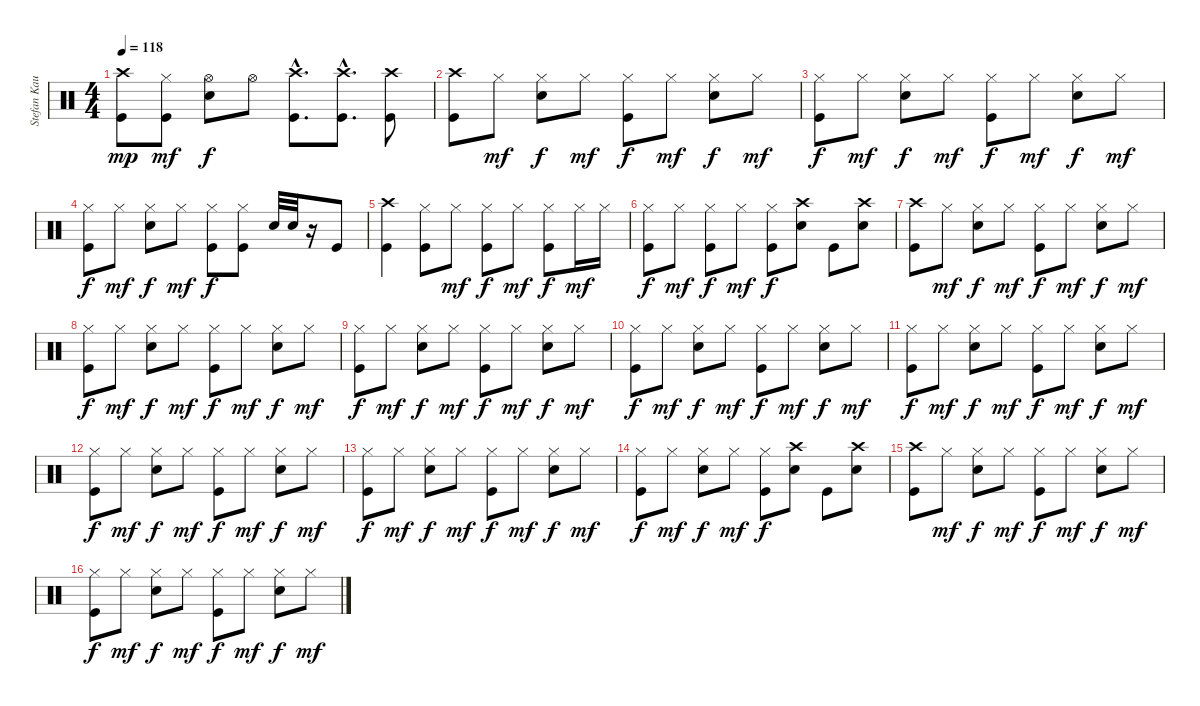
\track ("Stefan Kaufmann" "Stefan Kau") {instrument percussion}
\staff {score}
\articulation defaults
\ts (4 4)
\tempo 118
\clef neutral
\ks c
("Crash high (hit)" "Kick (hit)").8{dy mp} ("Hi-Hat (closed)" "Kick (hit)").8{dy mf} ("Hi-Hat (open)" "Snare (hit) 2").8{dy f} "Hi-Hat (open)".8 ("Crash high (hit)"{hac} "Kick (hit)"{hac}).8{d} ("Crash high (hit)"{hac} "Kick (hit)"{hac}).8{d} ("Crash high (hit)" "Kick (hit)").8 |
("Crash high (hit)" "Kick (hit)").8 "Hi-Hat (closed)".8{dy mf} ("Hi-Hat (closed)" "Snare (hit) 2").8{dy f} "Hi-Hat (closed)".8{dy mf} ("Hi-Hat (closed)" "Kick (hit)").8{dy f} "Hi-Hat (closed)".8{dy mf} ("Hi-Hat (closed)" "Snare (hit) 2").8{dy f} "Hi-Hat (closed)".8{dy mf} |
("Hi-Hat (closed)" "Kick (hit)").8{dy f} "Hi-Hat (closed)".8{dy mf} ("Hi-Hat (closed)" "Snare (hit) 2").8{dy f} "Hi-Hat (closed)".8{dy mf} ("Hi-Hat (closed)" "Kick (hit)").8{dy f} "Hi-Hat (closed)".8{dy mf} ("Hi-Hat (closed)" "Snare (hit) 2").8{dy f} "Hi-Hat (closed)".8{dy mf} |
("Hi-Hat (closed)" "Kick (hit)").8{dy f} "Hi-Hat (closed)".8{dy mf} ("Hi-Hat (closed)" "Snare (hit) 2").8{dy f} "Hi-Hat (closed)".8{dy mf} ("Hi-Hat (closed)" "Kick (hit)").8{dy f} ("Hi-Hat (closed)" "Kick (hit)").8 "Snare (hit) 2".32 "Snare (hit) 2".32 r.16 "Kick (hit)".8 |
("Crash high (hit)" "Kick (hit)").4 ("Hi-Hat (closed)" "Kick (hit)").8 "Hi-Hat (closed)".8{dy mf} ("Hi-Hat (closed)" "Kick (hit)").8{dy f} "Hi-Hat (closed)".8{dy mf} ("Hi-Hat (closed)" "Kick (hit)").8{dy f} "Hi-Hat (closed)".16{dy mf} "Hi-Hat (closed)".16 |
("Hi-Hat (closed)" "Kick (hit)").8{dy f} "Hi-Hat (closed)".8{dy mf} ("Hi-Hat (closed)" "Kick (hit)").8{dy f} "Hi-Hat (closed)".8{dy mf} ("Hi-Hat (closed)" "Kick (hit)").8{dy f} ("Crash high (hit)" "Snare (hit) 2").8 "Kick (hit)".8 ("Crash high (hit)" "Snare (hit) 2").8 |
("Crash high (hit)" "Kick (hit)").8 "Hi-Hat (closed)".8{dy mf} ("Hi-Hat (closed)" "Snare (hit) 2").8{dy f} "Hi-Hat (closed)".8{dy mf} ("Hi-Hat (closed)" "Kick (hit)").8{dy f} "Hi-Hat (closed)".8{dy mf} ("Hi-Hat (closed)" "Snare (hit) 2").8{dy f} "Hi-Hat (closed)".8{dy mf} |
("Hi-Hat (closed)" "Kick (hit)").8{dy f} "Hi-Hat (closed)".8{dy mf} ("Hi-Hat (closed)" "Snare (hit) 2").8{dy f} "Hi-Hat (closed)".8{dy mf} ("Hi-Hat (closed)" "Kick (hit)").8{dy f} "Hi-Hat (closed)".8{dy mf} ("Hi-Hat (closed)" "Snare (hit) 2").8{dy f} "Hi-Hat (closed)".8{dy mf} |
("Hi-Hat (closed)" "Kick (hit)").8{dy f} "Hi-Hat (closed)".8{dy mf} ("Hi-Hat (closed)" "Snare (hit) 2").8{dy f} "Hi-Hat (closed)".8{dy mf} ("Hi-Hat (closed)" "Kick (hit)").8{dy f} "Hi-Hat (closed)".8{dy mf} ("Hi-Hat (closed)" "Snare (hit) 2").8{dy f} "Hi-Hat (closed)".8{dy mf} |
("Hi-Hat (closed)" "Kick (hit)").8{dy f} "Hi-Hat (closed)".8{dy mf} ("Hi-Hat (closed)" "Snare (hit) 2").8{dy f} "Hi-Hat (closed)".8{dy mf} ("Hi-Hat (closed)" "Kick (hit)").8{dy f} "Hi-Hat (closed)".8{dy mf} ("Hi-Hat (closed)" "Snare (hit) 2").8{dy f} "Hi-Hat (closed)".8{dy mf} |
("Hi-Hat (closed)" "Kick (hit)").8{dy f} "Hi-Hat (closed)".8{dy mf} ("Hi-Hat (closed)" "Snare (hit) 2").8{dy f} "Hi-Hat (closed)".8{dy mf} ("Hi-Hat (closed)" "Kick (hit)").8{dy f} "Hi-Hat (closed)".8{dy mf} ("Hi-Hat (closed)" "Snare (hit) 2").8{dy f} "Hi-Hat (closed)".8{dy mf} |
("Hi-Hat (closed)" "Kick (hit)").8{dy f} "Hi-Hat (closed)".8{dy mf} ("Hi-Hat (closed)" "Snare (hit) 2").8{dy f} "Hi-Hat (closed)".8{dy mf} ("Hi-Hat (closed)" "Kick (hit)").8{dy f} "Hi-Hat (closed)".8{dy mf} ("Hi-Hat (closed)" "Snare (hit) 2").8{dy f} "Hi-Hat (closed)".8{dy mf} |
("Hi-Hat (closed)" "Kick (hit)").8{dy f} "Hi-Hat (closed)".8{dy mf} ("Hi-Hat (closed)" "Snare (hit) 2").8{dy f} "Hi-Hat (closed)".8{dy mf} ("Hi-Hat (closed)" "Kick (hit)").8{dy f} "Hi-Hat (closed)".8{dy mf} ("Hi-Hat (closed)" "Snare (hit) 2").8{dy f} "Hi-Hat (closed)".8{dy mf} |
("Hi-Hat (closed)" "Kick (hit)").8{dy f} "Hi-Hat (closed)".8{dy mf} ("Hi-Hat (closed)" "Snare (hit) 2").8{dy f} "Hi-Hat (closed)".8{dy mf} ("Hi-Hat (closed)" "Kick (hit)").8{dy f} ("Crash high (hit)" "Snare (hit) 2").8 "Kick (hit)".8 ("Crash high (hit)" "Snare (hit) 2").8 |
("Crash high (hit)" "Kick (hit)").8 "Hi-Hat (closed)".8{dy mf} ("Hi-Hat (closed)" "Snare (hit) 2").8{dy f} "Hi-Hat (closed)".8{dy mf} ("Hi-Hat (closed)" "Kick (hit)").8{dy f} "Hi-Hat (closed)".8{dy mf} ("Hi-Hat (closed)" "Snare (hit) 2").8{dy f} "Hi-Hat (closed)".8{dy mf} |
("Hi-Hat (closed)" "Kick (hit)").8{dy f} "Hi-Hat (closed)".8{dy mf} ("Hi-Hat (closed)" "Snare (hit) 2").8{dy f} "Hi-Hat (closed)".8{dy mf} ("Hi-Hat (closed)" "Kick (hit)").8{dy f} "Hi-Hat (closed)".8{dy mf} ("Hi-Hat (closed)" "Snare (hit) 2").8{dy f} "Hi-Hat (closed)".8{dy mf}
